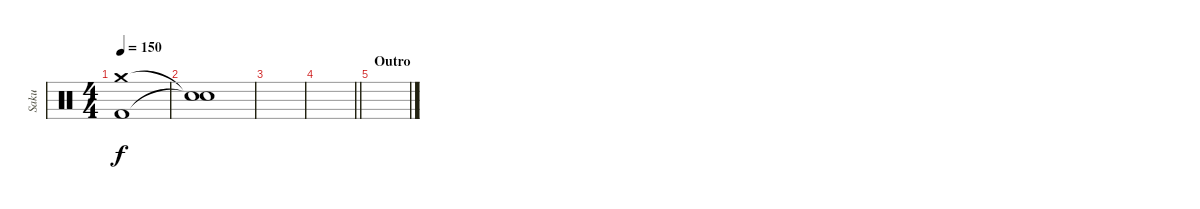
\track ("Saku" "Saku") {instrument percussion}
\staff {score}
\articulation defaults
\ts (4 4)
\tempo 150
\clef neutral
\ks c
("Crash medium (hit)" "Kick (hit) 2").1{dy f} |
("Snare (hit)"{t} "Snare (hit)"{t}).1 |
|
\barLineRight lightlight
|
\section ("" "Outro")
